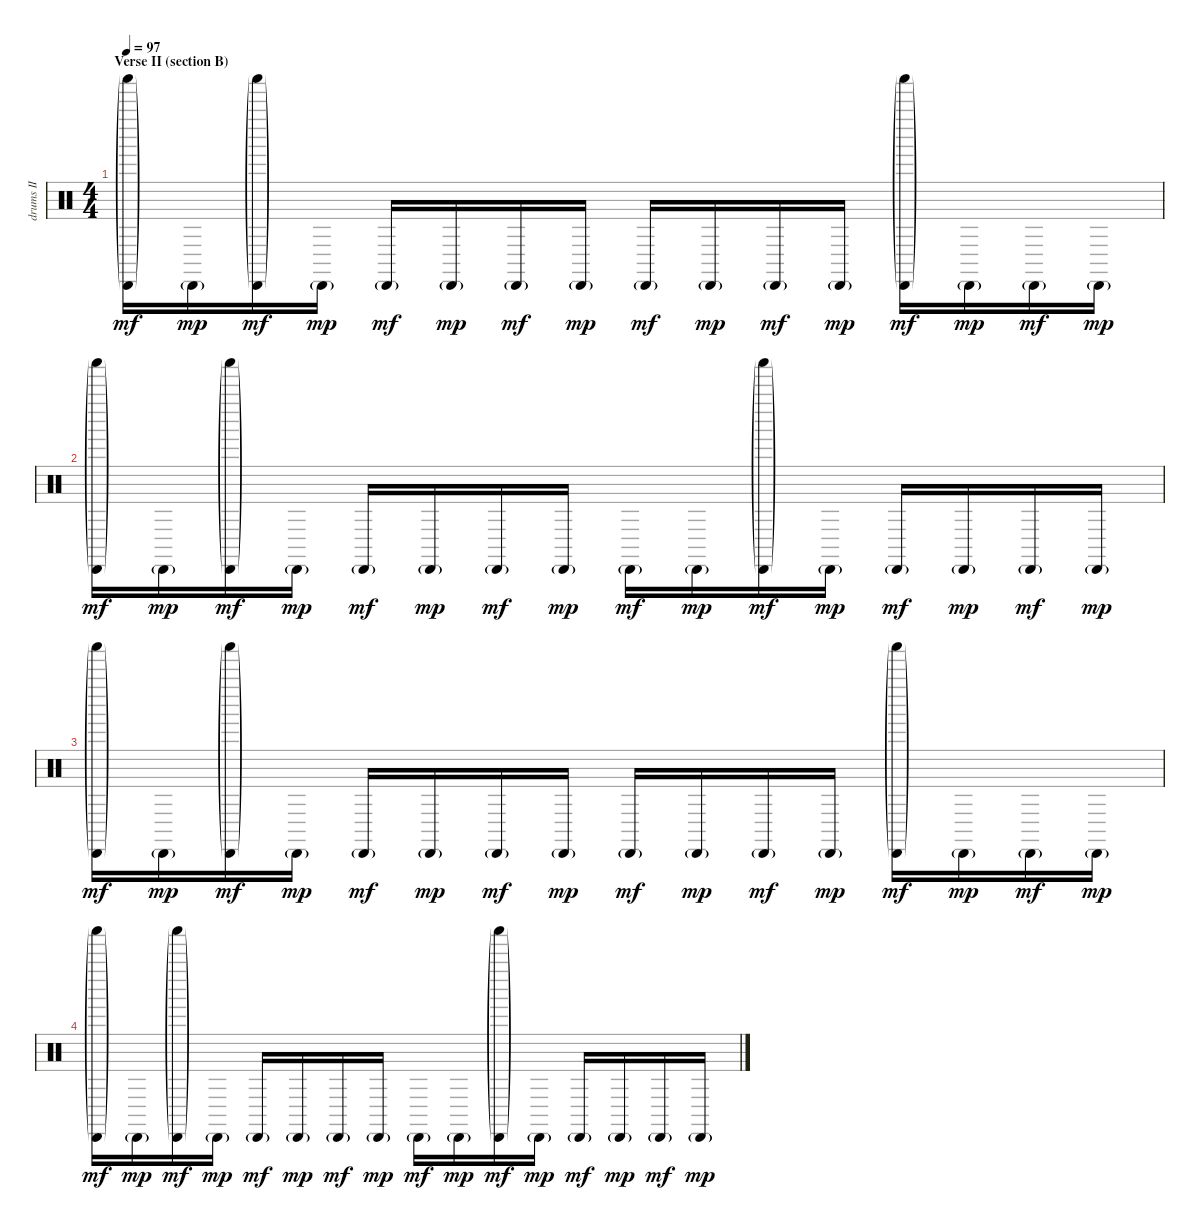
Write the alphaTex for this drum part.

\track ("drums II" "drums II") {instrument percussion}
\staff {score}
\articulation defaults
\ts (4 4)
\section ("" "Verse II (section B)")
\tempo 97
\clef neutral
\ks c
("Shaker (hit)"{g} "Cabasa (hit)"{g}).16{dy mf} "Cabasa (hit)"{g}.16{dy mp} ("Shaker (hit)"{g} "Cabasa (hit)"{g}).16{dy mf} "Cabasa (hit)"{g}.16{dy mp} "Cabasa (hit)"{g}.16{dy mf} "Cabasa (hit)"{g}.16{dy mp} "Cabasa (hit)"{g}.16{dy mf} "Cabasa (hit)"{g}.16{dy mp} "Cabasa (hit)"{g}.16{dy mf} "Cabasa (hit)"{g}.16{dy mp} "Cabasa (hit)"{g}.16{dy mf} "Cabasa (hit)"{g}.16{dy mp} ("Shaker (hit)"{g} "Cabasa (hit)"{g}).16{dy mf} "Cabasa (hit)"{g}.16{dy mp} "Cabasa (hit)"{g}.16{dy mf} "Cabasa (hit)"{g}.16{dy mp} |
("Shaker (hit)"{g} "Cabasa (hit)"{g}).16{dy mf} "Cabasa (hit)"{g}.16{dy mp} ("Shaker (hit)"{g} "Cabasa (hit)"{g}).16{dy mf} "Cabasa (hit)"{g}.16{dy mp} "Cabasa (hit)"{g}.16{dy mf} "Cabasa (hit)"{g}.16{dy mp} "Cabasa (hit)"{g}.16{dy mf} "Cabasa (hit)"{g}.16{dy mp} "Cabasa (hit)"{g}.16{dy mf} "Cabasa (hit)"{g}.16{dy mp} ("Shaker (hit)"{g} "Cabasa (hit)"{g}).16{dy mf} "Cabasa (hit)"{g}.16{dy mp} "Cabasa (hit)"{g}.16{dy mf} "Cabasa (hit)"{g}.16{dy mp} "Cabasa (hit)"{g}.16{dy mf} "Cabasa (hit)"{g}.16{dy mp} |
("Shaker (hit)"{g} "Cabasa (hit)"{g}).16{dy mf} "Cabasa (hit)"{g}.16{dy mp} ("Shaker (hit)"{g} "Cabasa (hit)"{g}).16{dy mf} "Cabasa (hit)"{g}.16{dy mp} "Cabasa (hit)"{g}.16{dy mf} "Cabasa (hit)"{g}.16{dy mp} "Cabasa (hit)"{g}.16{dy mf} "Cabasa (hit)"{g}.16{dy mp} "Cabasa (hit)"{g}.16{dy mf} "Cabasa (hit)"{g}.16{dy mp} "Cabasa (hit)"{g}.16{dy mf} "Cabasa (hit)"{g}.16{dy mp} ("Shaker (hit)"{g} "Cabasa (hit)"{g}).16{dy mf} "Cabasa (hit)"{g}.16{dy mp} "Cabasa (hit)"{g}.16{dy mf} "Cabasa (hit)"{g}.16{dy mp} |
("Shaker (hit)"{g} "Cabasa (hit)"{g}).16{dy mf} "Cabasa (hit)"{g}.16{dy mp} ("Shaker (hit)"{g} "Cabasa (hit)"{g}).16{dy mf} "Cabasa (hit)"{g}.16{dy mp} "Cabasa (hit)"{g}.16{dy mf} "Cabasa (hit)"{g}.16{dy mp} "Cabasa (hit)"{g}.16{dy mf} "Cabasa (hit)"{g}.16{dy mp} "Cabasa (hit)"{g}.16{dy mf} "Cabasa (hit)"{g}.16{dy mp} ("Shaker (hit)"{g} "Cabasa (hit)"{g}).16{dy mf} "Cabasa (hit)"{g}.16{dy mp} "Cabasa (hit)"{g}.16{dy mf} "Cabasa (hit)"{g}.16{dy mp} "Cabasa (hit)"{g}.16{dy mf} "Cabasa (hit)"{g}.16{dy mp}
